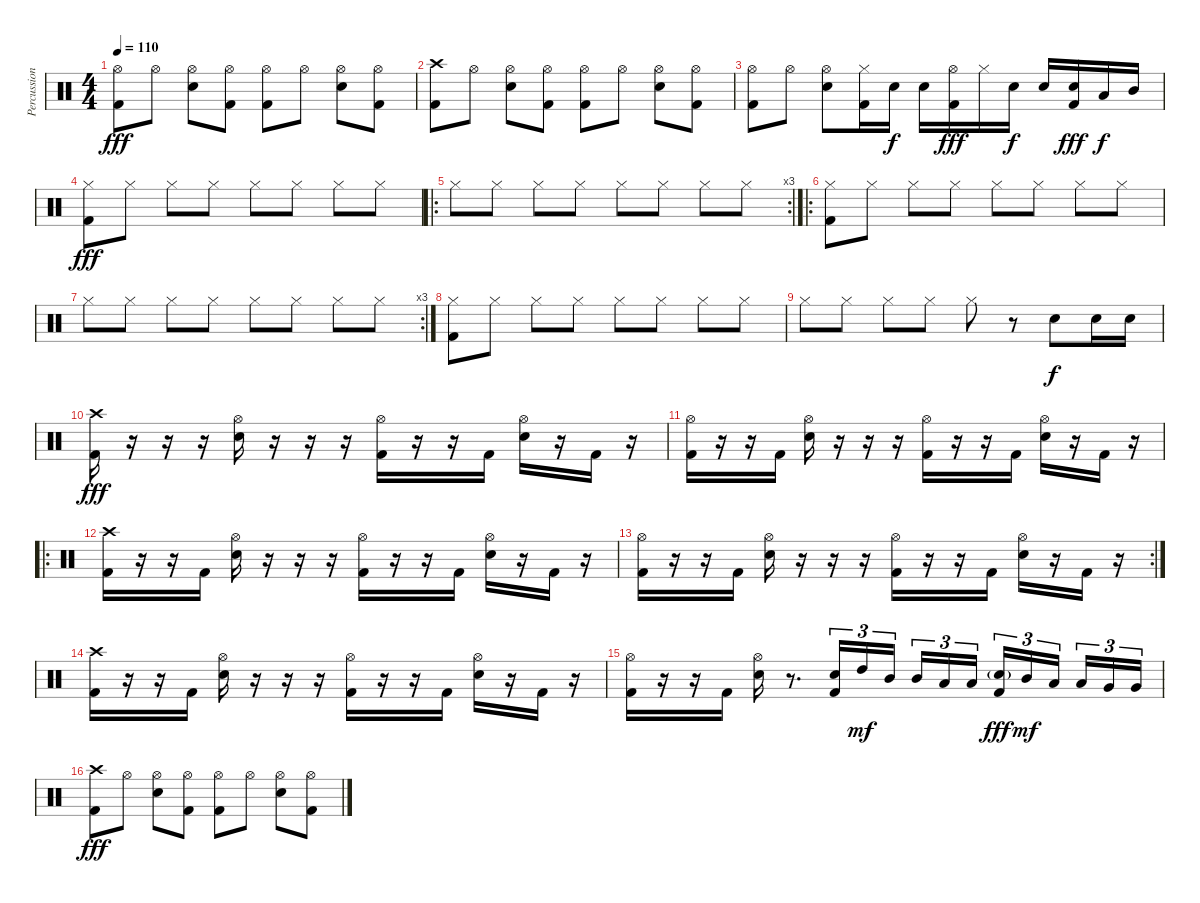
\track ("Percussion" "Percussion") {instrument percussion}
\staff {score}
\articulation defaults
\ts (4 4)
\tempo 110
\clef neutral
\ks c
("Hi-Hat (open)" "Kick (hit) 2").8{dy fff} "Hi-Hat (open)".8 ("Hi-Hat (open)" "Electric Snare (hit)").8 ("Hi-Hat (open)" "Kick (hit) 2").8 ("Hi-Hat (open)" "Kick (hit) 2").8 "Hi-Hat (open)".8 ("Hi-Hat (open)" "Electric Snare (hit)").8 ("Hi-Hat (open)" "Kick (hit) 2").8 |
("Crash high (hit)" "Kick (hit) 2").8 "Hi-Hat (open)".8 ("Hi-Hat (open)" "Electric Snare (hit)").8 ("Hi-Hat (open)" "Kick (hit) 2").8 ("Hi-Hat (open)" "Kick (hit) 2").8 "Hi-Hat (open)".8 ("Hi-Hat (open)" "Electric Snare (hit)").8 ("Hi-Hat (open)" "Kick (hit) 2").8 |
("Hi-Hat (open)" "Kick (hit) 2").8 "Hi-Hat (open)".8 ("Hi-Hat (open)" "Electric Snare (hit)").8 ("Hi-Hat (closed)" "Kick (hit) 2").16 "Electric Snare (hit)".16{dy f} "Electric Snare (hit)".16 ("Hi-Hat (open)" "Kick (hit) 2").16{dy fff} "Hi-Hat (closed)".16 "Electric Snare (hit)".16{dy f} "Electric Snare (hit)".16 ("Electric Snare (hit)" "Kick (hit) 2").16{dy fff} "Low Tom (hit)".16{dy f} "Mid Tom (hit)".16 |
("Hi-Hat (closed)" "Kick (hit) 2").8{dy fff} "Hi-Hat (closed)".8 "Hi-Hat (closed)".8 "Hi-Hat (closed)".8 "Hi-Hat (closed)".8 "Hi-Hat (closed)".8 "Hi-Hat (closed)".8 "Hi-Hat (closed)".8 |
\ro
\rc 3 "Hi-Hat (closed)".8 "Hi-Hat (closed)".8 "Hi-Hat (closed)".8 "Hi-Hat (closed)".8 "Hi-Hat (closed)".8 "Hi-Hat (closed)".8 "Hi-Hat (closed)".8 "Hi-Hat (closed)".8
|
\ro
("Hi-Hat (closed)" "Kick (hit) 2").8 "Hi-Hat (closed)".8 "Hi-Hat (closed)".8 "Hi-Hat (closed)".8 "Hi-Hat (closed)".8 "Hi-Hat (closed)".8 "Hi-Hat (closed)".8 "Hi-Hat (closed)".8 |
\rc 3 "Hi-Hat (closed)".8 "Hi-Hat (closed)".8 "Hi-Hat (closed)".8 "Hi-Hat (closed)".8 "Hi-Hat (closed)".8 "Hi-Hat (closed)".8 "Hi-Hat (closed)".8 "Hi-Hat (closed)".8
|
("Hi-Hat (closed)" "Kick (hit) 2").8 "Hi-Hat (closed)".8 "Hi-Hat (closed)".8 "Hi-Hat (closed)".8 "Hi-Hat (closed)".8 "Hi-Hat (closed)".8 "Hi-Hat (closed)".8 "Hi-Hat (closed)".8 |
"Hi-Hat (closed)".8 "Hi-Hat (closed)".8 "Hi-Hat (closed)".8 "Hi-Hat (closed)".8 "Hi-Hat (closed)".8 r.8 "Electric Snare (hit)".8{dy f} "Electric Snare (hit)".16 "Electric Snare (hit)".16 |
("Crash high (hit)" "Kick (hit) 2").16{dy fff} r.16 r.16 r.16 ("Hi-Hat (open)" "Electric Snare (hit)").16 r.16 r.16 r.16 ("Hi-Hat (open)" "Kick (hit) 2").16 r.16 r.16 "Kick (hit) 2".16 ("Hi-Hat (open)" "Electric Snare (hit)").16 r.16 "Kick (hit) 2".16 r.16 |
("Hi-Hat (open)" "Kick (hit) 2").16 r.16 r.16 "Kick (hit) 2".16 ("Hi-Hat (open)" "Electric Snare (hit)").16 r.16 r.16 r.16 ("Hi-Hat (open)" "Kick (hit) 2").16 r.16 r.16 "Kick (hit) 2".16 ("Hi-Hat (open)" "Electric Snare (hit)").16 r.16 "Kick (hit) 2".16 r.16 |
\ro
("Crash high (hit)" "Kick (hit) 2").16 r.16 r.16 "Kick (hit) 2".16 ("Hi-Hat (open)" "Electric Snare (hit)").16 r.16 r.16 r.16 ("Hi-Hat (open)" "Kick (hit) 2").16 r.16 r.16 "Kick (hit) 2".16 ("Hi-Hat (open)" "Electric Snare (hit)").16 r.16 "Kick (hit) 2".16 r.16 |
\rc 2
("Hi-Hat (open)" "Kick (hit) 2").16 r.16 r.16 "Kick (hit) 2".16 ("Hi-Hat (open)" "Electric Snare (hit)").16 r.16 r.16 r.16 ("Hi-Hat (open)" "Kick (hit) 2").16 r.16 r.16 "Kick (hit) 2".16 ("Hi-Hat (open)" "Electric Snare (hit)").16 r.16 "Kick (hit) 2".16 r.16 |
("Crash high (hit)" "Kick (hit) 2").16 r.16 r.16 "Kick (hit) 2".16 ("Hi-Hat (open)" "Electric Snare (hit)").16 r.16 r.16 r.16 ("Hi-Hat (open)" "Kick (hit) 2").16 r.16 r.16 "Kick (hit) 2".16 ("Hi-Hat (open)" "Electric Snare (hit)").16 r.16 "Kick (hit) 2".16 r.16 |
("Hi-Hat (open)" "Kick (hit) 2").16 r.16 r.16 "Kick (hit) 2".16 ("Hi-Hat (open)" "Electric Snare (hit)").16 r.8{d} ("Electric Snare (hit)" "Kick (hit) 2").16{tu (3 2)} "High Tom (hit)".16{tu (3 2) dy mf} "Mid Tom (hit)".16{tu (3 2)} "Mid Tom (hit)".16{tu (3 2)} "Low Tom (hit)".16{tu (3 2)} "Low Tom (hit)".16{tu (3 2)} ("Electric Snare (hit)"{g} "Kick (hit) 2").16{tu (3 2) dy fff} "Mid Tom (hit)".16{tu (3 2) dy mf} "Low Tom (hit)".16{tu (3 2)} "Low Tom (hit)".16{tu (3 2)} "Very Low Tom (hit)".16{tu (3 2)} "Very Low Tom (hit)".16{tu (3 2)} |
("Crash high (hit)" "Kick (hit) 2").8{dy fff} "Hi-Hat (open)".8 ("Hi-Hat (open)" "Electric Snare (hit)").8 ("Hi-Hat (open)" "Kick (hit) 2").8 ("Hi-Hat (open)" "Kick (hit) 2").8 "Hi-Hat (open)".8 ("Hi-Hat (open)" "Electric Snare (hit)").8 ("Hi-Hat (open)" "Kick (hit) 2").8
